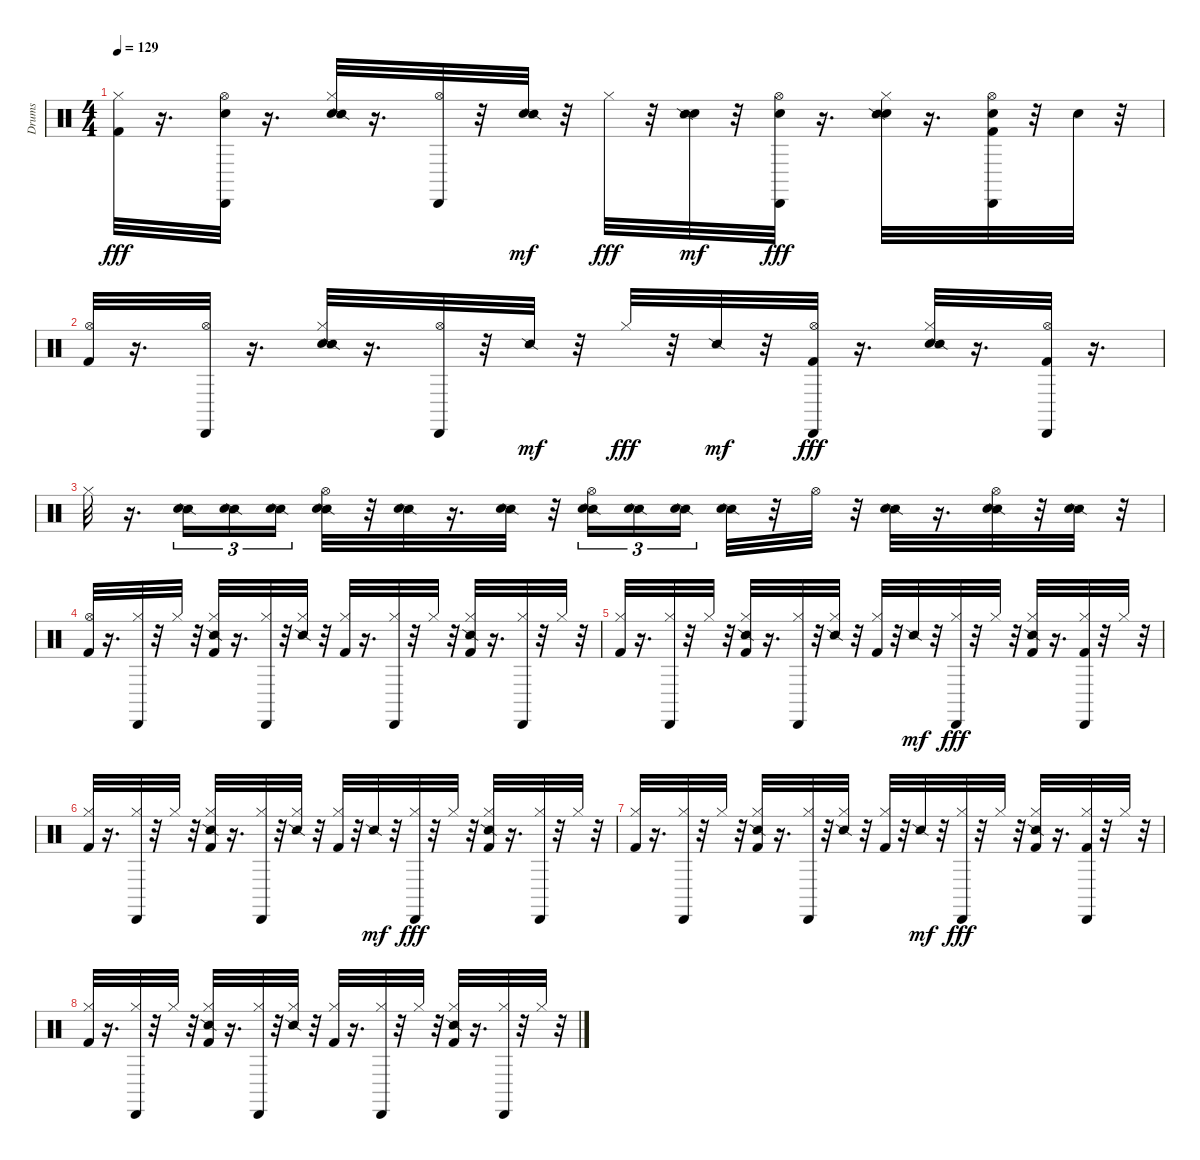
\track ("Drums" "Drums") {instrument percussion}
\staff {score}
\articulation defaults
\ts (4 4)
\tempo 129
\clef neutral
\ks c
("Hi-Hat (closed)" "Kick (hit) 2").32{dy fff} r.16{d} ("Hi-Hat (open)" "Cabasa (hit)" "Hand Clap (hit)").32 r.16{d} ("Hi-Hat (closed)" "Hand Clap (hit)" "Snare (side stick) 2").32 r.16{d} ("Hi-Hat (open)" "Cabasa (hit)").32 r.32 ("Hand Clap (hit)" "Snare (side stick) 2").32{dy mf} r.32 "Hi-Hat (closed)".32{dy fff} r.32 ("Hand Clap (hit)" "Snare (side stick) 2").32{dy mf} r.32 ("Hi-Hat (open)" "Cabasa (hit)" "Hand Clap (hit)").32{dy fff} r.16{d} ("Hi-Hat (closed)" "Hand Clap (hit)" "Snare (side stick) 2").32 r.16{d} ("Hi-Hat (open)" "Cabasa (hit)" "Kick (hit) 2" "Hand Clap (hit)").32 r.32 "Hand Clap (hit)".32 r.32 |
("Hi-Hat (open)" "Kick (hit) 2").32 r.16{d} ("Hi-Hat (open)" "Cabasa (hit)").32 r.16{d} ("Hand Clap (hit)" "Hi-Hat (closed)" "Snare (side stick) 2").32 r.16{d} ("Hi-Hat (open)" "Cabasa (hit)").32 r.32 "Snare (side stick) 2".32{dy mf} r.32 "Hi-Hat (closed)".32{dy fff} r.32 "Snare (side stick) 2".32{dy mf} r.32 ("Hi-Hat (open)" "Cabasa (hit)" "Kick (hit) 2").32{dy fff} r.16{d} ("Hand Clap (hit)" "Hi-Hat (closed)" "Snare (side stick) 2").32 r.16{d} ("Hi-Hat (open)" "Cabasa (hit)" "Kick (hit) 2").32 r.16{d} |
"Hi-Hat (closed)".32 r.16{d} ("Snare (side stick) 2" "Hand Clap (hit)").16{tu (3 2)} ("Snare (side stick) 2" "Hand Clap (hit)").16{tu (3 2)} ("Snare (side stick) 2" "Hand Clap (hit)").16{tu (3 2)} ("Hi-Hat (open)" "Snare (side stick) 2" "Hand Clap (hit)").32 r.32 ("Snare (side stick) 2" "Hand Clap (hit)").32 r.16{d} ("Snare (side stick) 2" "Hand Clap (hit)").32 r.32 ("Hi-Hat (open)" "Snare (side stick) 2" "Hand Clap (hit)").16{tu (3 2)} ("Snare (side stick) 2" "Hand Clap (hit)").16{tu (3 2)} ("Snare (side stick) 2" "Hand Clap (hit)").16{tu (3 2) beam splitsecondary} ("Snare (side stick) 2" "Hand Clap (hit)").32 r.32 "Hi-Hat (open)".32 r.32 ("Snare (side stick) 2" "Hand Clap (hit)").32 r.16{d} ("Hi-Hat (open)" "Snare (side stick) 2" "Hand Clap (hit)").32 r.32 ("Snare (side stick) 2" "Hand Clap (hit)").32 r.32 |
("Kick (hit) 2" "Hi-Hat (open)").32 r.16{d} ("Cabasa (hit)" "Hi-Hat (closed)").32 r.32 "Hi-Hat (closed)".32 r.32 ("Snare (side stick) 2" "Hi-Hat (closed)" "Kick (hit) 2").32 r.16{d} ("Cabasa (hit)" "Hi-Hat (closed)").32 r.32 ("Snare (side stick) 2" "Hi-Hat (closed)").32 r.32 ("Kick (hit) 2" "Hi-Hat (closed)").32 r.16{d} ("Cabasa (hit)" "Hi-Hat (closed)").32 r.32 "Hi-Hat (closed)".32 r.32 ("Snare (side stick) 2" "Hi-Hat (closed)" "Kick (hit) 2").32 r.16{d} ("Cabasa (hit)" "Hi-Hat (closed)").32 r.32 "Hi-Hat (closed)".32 r.32 |
("Kick (hit) 2" "Hi-Hat (closed)").32 r.16{d} ("Cabasa (hit)" "Hi-Hat (closed)").32 r.32 "Hi-Hat (closed)".32 r.32 ("Snare (side stick) 2" "Hi-Hat (closed)" "Kick (hit) 2").32 r.16{d} ("Cabasa (hit)" "Hi-Hat (closed)").32 r.32 ("Snare (side stick) 2" "Hi-Hat (closed)").32 r.32 ("Kick (hit) 2" "Hi-Hat (closed)").32 r.32 "Snare (side stick) 2".32{dy mf} r.32 ("Cabasa (hit)" "Hi-Hat (closed)").32{dy fff} r.32 "Hi-Hat (closed)".32 r.32 ("Snare (side stick) 2" "Hi-Hat (closed)" "Kick (hit) 2").32 r.16{d} ("Kick (hit) 2" "Cabasa (hit)" "Hi-Hat (closed)").32 r.32 "Hi-Hat (closed)".32 r.32 |
("Kick (hit) 2" "Hi-Hat (closed)").32 r.16{d} ("Cabasa (hit)" "Hi-Hat (closed)").32 r.32 "Hi-Hat (closed)".32 r.32 ("Snare (side stick) 2" "Hi-Hat (closed)" "Kick (hit) 2").32 r.16{d} ("Cabasa (hit)" "Hi-Hat (closed)").32 r.32 ("Snare (side stick) 2" "Hi-Hat (closed)").32 r.32 ("Kick (hit) 2" "Hi-Hat (closed)").32 r.32 "Snare (side stick) 2".32{dy mf} r.32 ("Cabasa (hit)" "Hi-Hat (closed)").32{dy fff} r.32 "Hi-Hat (closed)".32 r.32 ("Snare (side stick) 2" "Hi-Hat (closed)" "Kick (hit) 2").32 r.16{d} ("Cabasa (hit)" "Hi-Hat (closed)").32 r.32 "Hi-Hat (closed)".32 r.32 |
("Kick (hit) 2" "Hi-Hat (closed)").32 r.16{d} ("Cabasa (hit)" "Hi-Hat (closed)").32 r.32 "Hi-Hat (closed)".32 r.32 ("Snare (side stick) 2" "Hi-Hat (closed)" "Kick (hit) 2").32 r.16{d} ("Cabasa (hit)" "Hi-Hat (closed)").32 r.32 ("Snare (side stick) 2" "Hi-Hat (closed)").32 r.32 ("Kick (hit) 2" "Hi-Hat (closed)").32 r.32 "Snare (side stick) 2".32{dy mf} r.32 ("Cabasa (hit)" "Hi-Hat (closed)").32{dy fff} r.32 "Hi-Hat (closed)".32 r.32 ("Snare (side stick) 2" "Hi-Hat (closed)" "Kick (hit) 2").32 r.16{d} ("Kick (hit) 2" "Cabasa (hit)" "Hi-Hat (closed)").32 r.32 "Hi-Hat (closed)".32 r.32 |
("Kick (hit) 2" "Hi-Hat (closed)").32 r.16{d} ("Cabasa (hit)" "Hi-Hat (closed)").32 r.32 "Hi-Hat (closed)".32 r.32 ("Snare (side stick) 2" "Hi-Hat (closed)" "Kick (hit) 2").32 r.16{d} ("Cabasa (hit)" "Hi-Hat (closed)").32 r.32 ("Snare (side stick) 2" "Hi-Hat (closed)").32 r.32 ("Kick (hit) 2" "Hi-Hat (closed)").32 r.16{d} ("Cabasa (hit)" "Hi-Hat (closed)").32 r.32 "Hi-Hat (closed)".32 r.32 ("Snare (side stick) 2" "Hi-Hat (closed)" "Kick (hit) 2").32 r.16{d} ("Cabasa (hit)" "Hi-Hat (closed)").32 r.32 "Hi-Hat (closed)".32 r.32
